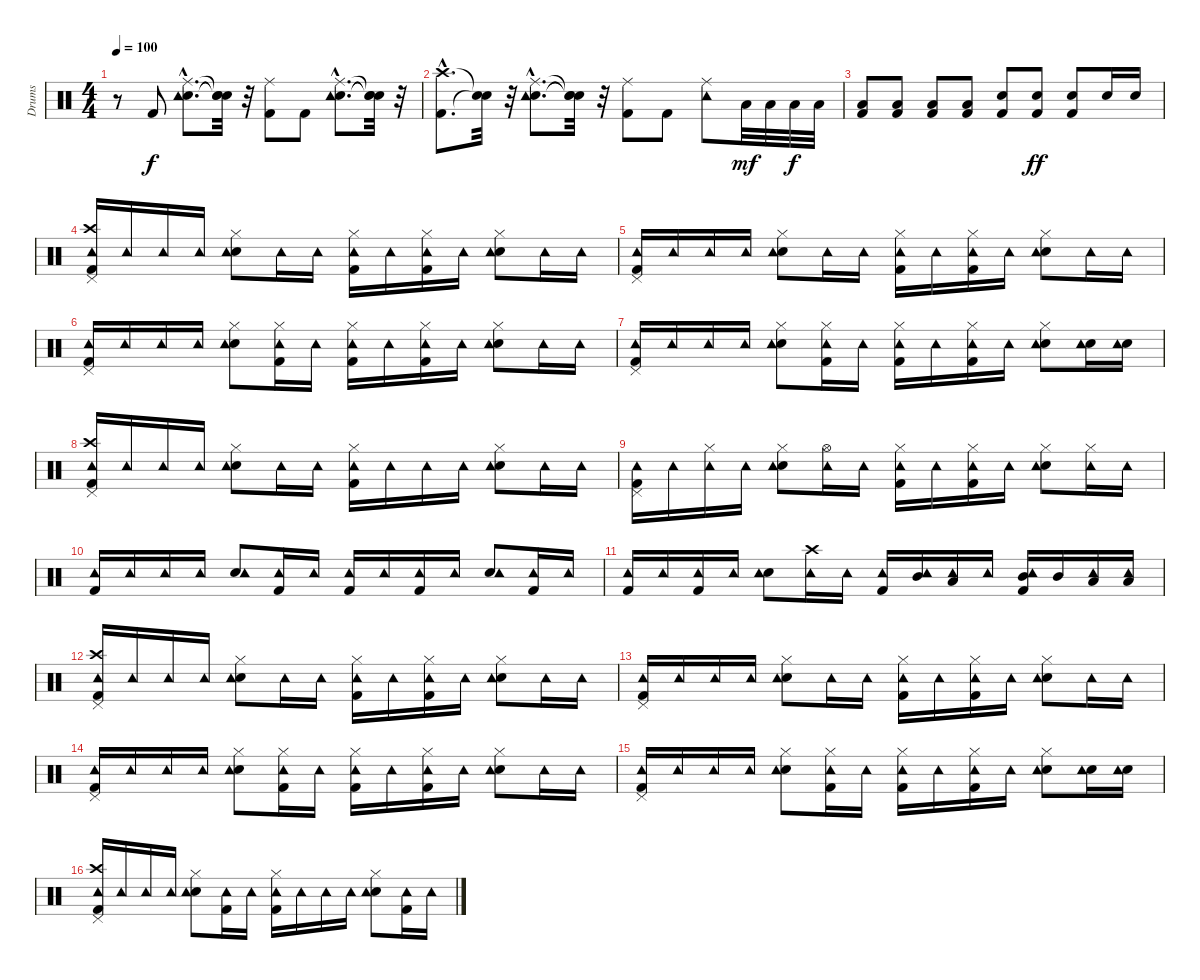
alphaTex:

\track ("Drums" "Drums") {instrument percussion}
\staff {score}
\articulation defaults
\ts (4 4)
\tempo 100
\clef neutral
\ks c
r.8{dy f} "Kick (hit) 2".8 ("Snare (hit) 2"{hac} "Ride (middle)"{hac} "Tambourine (hit)"{hac}).8{d} ("Snare (hit)"{t} "Snare (hit)"{t} "Snare (hit)"{t}).32 r.32 ("Kick (hit) 2" "Ride (middle)").8 "Kick (hit) 2".8 ("Snare (hit) 2"{hac} "Ride (middle)"{hac} "Tambourine (hit)"{hac}).8{d} ("Snare (hit)"{t} "Snare (hit)"{t} "Snare (hit)"{t}).32 r.32 |
("Kick (hit) 2"{hac} "Crash high (hit)"{hac}).8{d} ("Snare (hit)"{t} "Snare (hit)"{t}).32 r.32 ("Snare (hit) 2"{hac} "Ride (middle)"{hac} "Tambourine (hit)"{hac}).8{d} ("Snare (hit)"{t} "Snare (hit)"{t} "Snare (hit)"{t}).32 r.32 ("Kick (hit) 2" "Ride (middle)").8 "Kick (hit) 2".8 ("Ride (middle)" "Tambourine (hit)").8 "Low Tom (hit)".32{dy mf} "Low Tom (hit)".32 "Low Tom (hit)".32{dy f} "Low Tom (hit)".32 |
("Kick (hit) 2" "Low Floor Tom (hit)").8 ("Kick (hit) 2" "Low Floor Tom (hit)").8 ("Kick (hit) 2" "Low Floor Tom (hit)").8 ("Kick (hit) 2" "Low Floor Tom (hit)").8 ("Kick (hit) 2" "Snare (hit) 2").8 ("Kick (hit) 2" "Snare (hit) 2").8{dy ff} ("Kick (hit) 2" "Snare (hit) 2").8 "Snare (hit) 2".16 "Snare (hit) 2".16 |
("Kick (hit) 2" "Pedal Hi-Hat (hit)" "Crash high (hit)" "Tambourine (hit)").16 "Tambourine (hit)".16 "Tambourine (hit)".16 "Tambourine (hit)".16 ("Snare (hit) 2" "Hi-Hat (closed)" "Tambourine (hit)").8 "Tambourine (hit)".16 "Tambourine (hit)".16 ("Kick (hit) 2" "Hi-Hat (closed)" "Tambourine (hit)").16 "Tambourine (hit)".16 ("Kick (hit) 2" "Hi-Hat (closed)" "Tambourine (hit)").16 "Tambourine (hit)".16 ("Snare (hit) 2" "Hi-Hat (closed)" "Tambourine (hit)").8 "Tambourine (hit)".16 "Tambourine (hit)".16 |
("Kick (hit) 2" "Pedal Hi-Hat (hit)" "Tambourine (hit)").16 "Tambourine (hit)".16 "Tambourine (hit)".16 "Tambourine (hit)".16 ("Snare (hit) 2" "Hi-Hat (closed)" "Tambourine (hit)").8 "Tambourine (hit)".16 "Tambourine (hit)".16 ("Kick (hit) 2" "Hi-Hat (closed)" "Tambourine (hit)").16 "Tambourine (hit)".16 ("Kick (hit) 2" "Hi-Hat (closed)" "Tambourine (hit)").16 "Tambourine (hit)".16 ("Snare (hit) 2" "Hi-Hat (closed)" "Tambourine (hit)").8 "Tambourine (hit)".16 "Tambourine (hit)".16 |
("Kick (hit) 2" "Pedal Hi-Hat (hit)" "Tambourine (hit)").16 "Tambourine (hit)".16 "Tambourine (hit)".16 "Tambourine (hit)".16 ("Snare (hit) 2" "Hi-Hat (closed)" "Tambourine (hit)").8 ("Kick (hit) 2" "Hi-Hat (closed)" "Tambourine (hit)").16 "Tambourine (hit)".16 ("Kick (hit) 2" "Hi-Hat (closed)" "Tambourine (hit)").16 "Tambourine (hit)".16 ("Kick (hit) 2" "Hi-Hat (closed)" "Tambourine (hit)").16 "Tambourine (hit)".16 ("Snare (hit) 2" "Hi-Hat (closed)" "Tambourine (hit)").8 "Tambourine (hit)".16 "Tambourine (hit)".16 |
("Kick (hit) 2" "Pedal Hi-Hat (hit)" "Tambourine (hit)").16 "Tambourine (hit)".16 "Tambourine (hit)".16 "Tambourine (hit)".16 ("Snare (hit) 2" "Hi-Hat (closed)" "Tambourine (hit)").8 ("Kick (hit) 2" "Hi-Hat (closed)" "Tambourine (hit)").16 "Tambourine (hit)".16 ("Kick (hit) 2" "Hi-Hat (closed)" "Tambourine (hit)").16 "Tambourine (hit)".16 ("Kick (hit) 2" "Hi-Hat (closed)" "Tambourine (hit)").16 "Tambourine (hit)".16 ("Snare (hit) 2" "Hi-Hat (closed)" "Tambourine (hit)").8 ("Snare (hit) 2" "Tambourine (hit)").16 ("Snare (hit) 2" "Tambourine (hit)").16 |
("Kick (hit) 2" "Pedal Hi-Hat (hit)" "Crash high (hit)" "Tambourine (hit)").16 "Tambourine (hit)".16 "Tambourine (hit)".16 "Tambourine (hit)".16 ("Snare (hit) 2" "Hi-Hat (closed)" "Tambourine (hit)").8 "Tambourine (hit)".16 "Tambourine (hit)".16 ("Kick (hit) 2" "Hi-Hat (closed)" "Tambourine (hit)").16 "Tambourine (hit)".16 "Tambourine (hit)".16 "Tambourine (hit)".16 ("Snare (hit) 2" "Hi-Hat (closed)" "Tambourine (hit)").8 "Tambourine (hit)".16 "Tambourine (hit)".16 |
("Kick (hit) 2" "Pedal Hi-Hat (hit)" "Tambourine (hit)").16 "Tambourine (hit)".16 ("Hi-Hat (closed)" "Tambourine (hit)").16 "Tambourine (hit)".16 ("Snare (hit) 2" "Hi-Hat (closed)" "Tambourine (hit)").8 ("Hi-Hat (open)" "Tambourine (hit)").16 "Tambourine (hit)".16 ("Kick (hit) 2" "Hi-Hat (closed)" "Tambourine (hit)").16 "Tambourine (hit)".16 ("Kick (hit) 2" "Hi-Hat (closed)" "Tambourine (hit)").16 "Tambourine (hit)".16 ("Snare (hit) 2" "Hi-Hat (closed)" "Tambourine (hit)").8 ("Hi-Hat (closed)" "Tambourine (hit)").16 "Tambourine (hit)".16 |
("Kick (hit) 2" "Tambourine (hit)").16 "Tambourine (hit)".16 "Tambourine (hit)".16 "Tambourine (hit)".16 ("Snare (hit) 2" "Tambourine (hit)").8 ("Kick (hit) 2" "Tambourine (hit)").16 "Tambourine (hit)".16 ("Kick (hit) 2" "Tambourine (hit)").16 "Tambourine (hit)".16 ("Kick (hit) 2" "Tambourine (hit)").16 "Tambourine (hit)".16 ("Snare (hit) 2" "Tambourine (hit)").8 ("Kick (hit) 2" "Tambourine (hit)").16 "Tambourine (hit)".16 |
("Kick (hit) 2" "Tambourine (hit)").16 "Tambourine (hit)".16 ("Kick (hit) 2" "Tambourine (hit)").16 "Tambourine (hit)".16 ("Snare (hit) 2" "Tambourine (hit)").8 ("Crash high (hit)" "Tambourine (hit)").16 "Tambourine (hit)".16 ("Kick (hit) 2" "Tambourine (hit)").16 ("Mid Tom (hit)" "Tambourine (hit)").16 ("Low Tom (hit)" "Tambourine (hit)").16 "Tambourine (hit)".16 ("Kick (hit) 2" "Mid Tom (hit)" "Tambourine (hit)").16 "Mid Tom (hit)".16 ("Low Floor Tom (hit)" "Tambourine (hit)").16 ("Low Floor Tom (hit)" "Tambourine (hit)").16 |
("Kick (hit) 2" "Pedal Hi-Hat (hit)" "Crash high (hit)" "Tambourine (hit)").16 "Tambourine (hit)".16 "Tambourine (hit)".16 "Tambourine (hit)".16 ("Snare (hit) 2" "Hi-Hat (closed)" "Tambourine (hit)").8 "Tambourine (hit)".16 "Tambourine (hit)".16 ("Kick (hit) 2" "Hi-Hat (closed)" "Tambourine (hit)").16 "Tambourine (hit)".16 ("Kick (hit) 2" "Hi-Hat (closed)" "Tambourine (hit)").16 "Tambourine (hit)".16 ("Snare (hit) 2" "Hi-Hat (closed)" "Tambourine (hit)").8 "Tambourine (hit)".16 "Tambourine (hit)".16 |
("Kick (hit) 2" "Pedal Hi-Hat (hit)" "Tambourine (hit)").16 "Tambourine (hit)".16 "Tambourine (hit)".16 "Tambourine (hit)".16 ("Snare (hit) 2" "Hi-Hat (closed)" "Tambourine (hit)").8 "Tambourine (hit)".16 "Tambourine (hit)".16 ("Kick (hit) 2" "Hi-Hat (closed)" "Tambourine (hit)").16 "Tambourine (hit)".16 ("Kick (hit) 2" "Hi-Hat (closed)" "Tambourine (hit)").16 "Tambourine (hit)".16 ("Snare (hit) 2" "Hi-Hat (closed)" "Tambourine (hit)").8 "Tambourine (hit)".16 "Tambourine (hit)".16 |
("Kick (hit) 2" "Pedal Hi-Hat (hit)" "Tambourine (hit)").16 "Tambourine (hit)".16 "Tambourine (hit)".16 "Tambourine (hit)".16 ("Snare (hit) 2" "Hi-Hat (closed)" "Tambourine (hit)").8 ("Kick (hit) 2" "Hi-Hat (closed)" "Tambourine (hit)").16 "Tambourine (hit)".16 ("Kick (hit) 2" "Hi-Hat (closed)" "Tambourine (hit)").16 "Tambourine (hit)".16 ("Kick (hit) 2" "Hi-Hat (closed)" "Tambourine (hit)").16 "Tambourine (hit)".16 ("Snare (hit) 2" "Hi-Hat (closed)" "Tambourine (hit)").8 "Tambourine (hit)".16 "Tambourine (hit)".16 |
("Kick (hit) 2" "Pedal Hi-Hat (hit)" "Tambourine (hit)").16 "Tambourine (hit)".16 "Tambourine (hit)".16 "Tambourine (hit)".16 ("Snare (hit) 2" "Hi-Hat (closed)" "Tambourine (hit)").8 ("Kick (hit) 2" "Hi-Hat (closed)" "Tambourine (hit)").16 "Tambourine (hit)".16 ("Kick (hit) 2" "Hi-Hat (closed)" "Tambourine (hit)").16 "Tambourine (hit)".16 ("Kick (hit) 2" "Hi-Hat (closed)" "Tambourine (hit)").16 "Tambourine (hit)".16 ("Snare (hit) 2" "Hi-Hat (closed)" "Tambourine (hit)").8 ("Snare (hit) 2" "Tambourine (hit)").16 ("Snare (hit) 2" "Tambourine (hit)").16 |
("Kick (hit) 2" "Pedal Hi-Hat (hit)" "Crash high (hit)" "Tambourine (hit)").16 "Tambourine (hit)".16 "Tambourine (hit)".16 "Tambourine (hit)".16 ("Snare (hit) 2" "Hi-Hat (closed)" "Tambourine (hit)").8 ("Kick (hit) 2" "Tambourine (hit)").16 "Tambourine (hit)".16 ("Kick (hit) 2" "Hi-Hat (closed)" "Tambourine (hit)").16 "Tambourine (hit)".16 "Tambourine (hit)".16 "Tambourine (hit)".16 ("Snare (hit) 2" "Hi-Hat (closed)" "Tambourine (hit)").8 ("Kick (hit) 2" "Tambourine (hit)").16 "Tambourine (hit)".16
